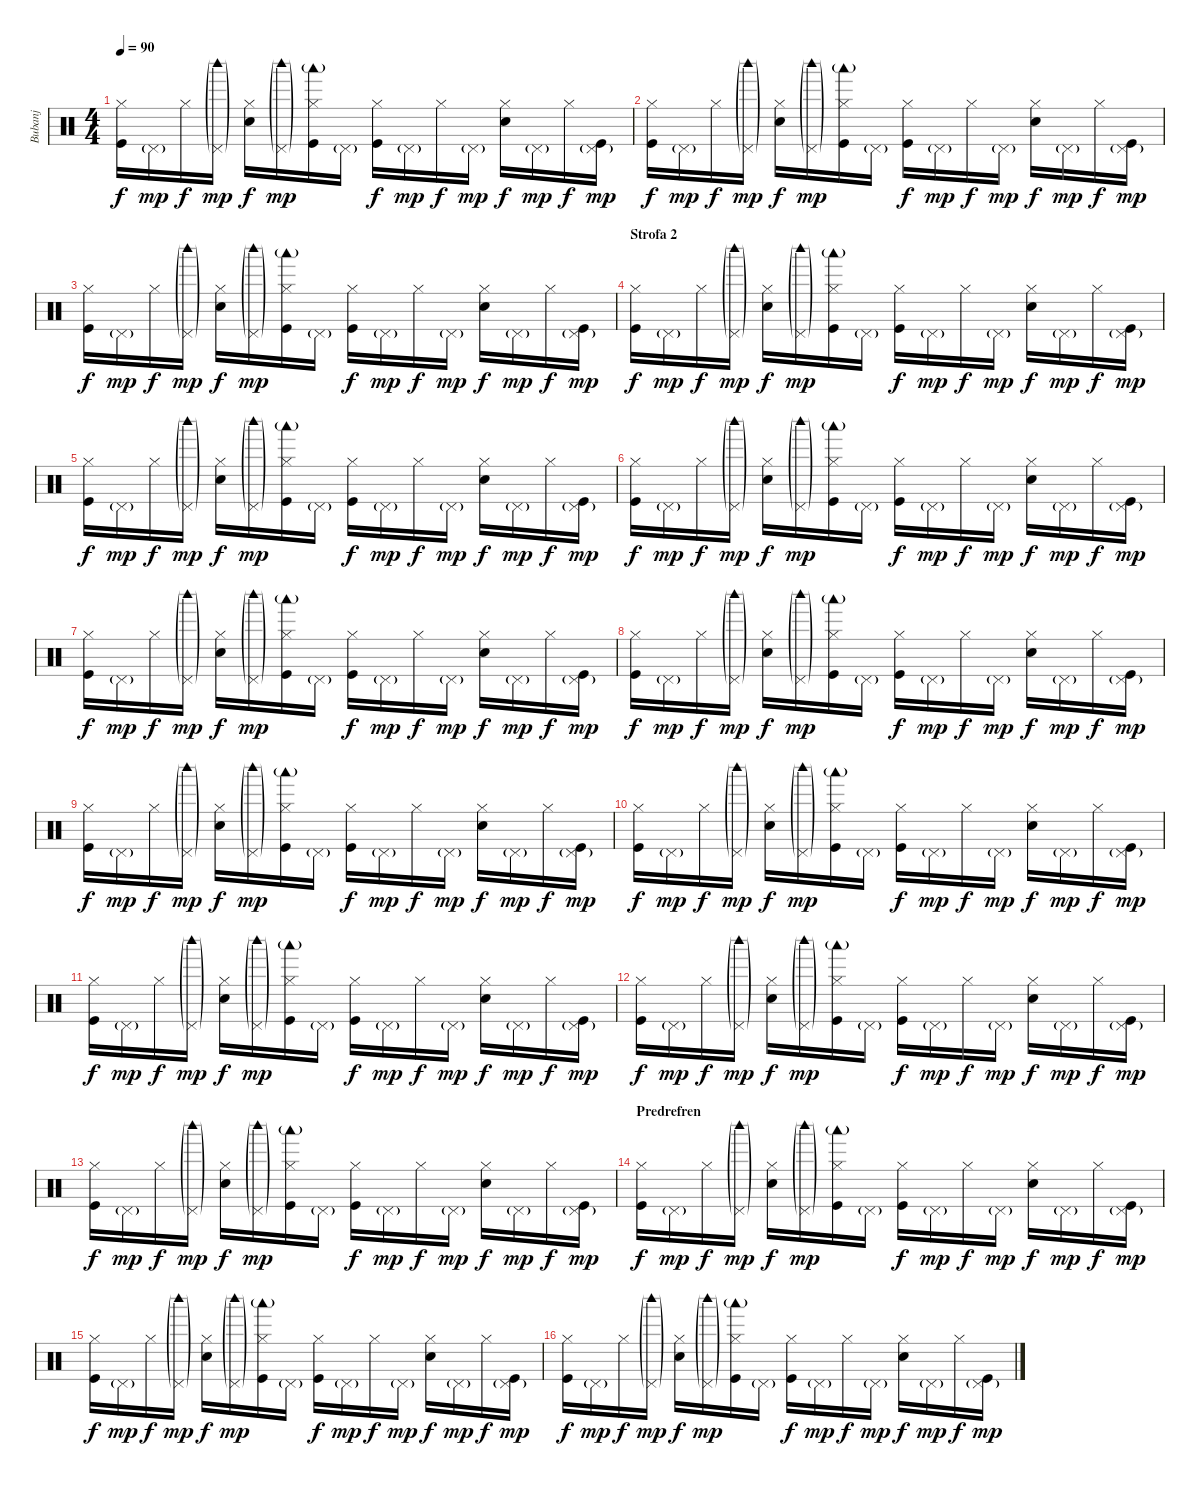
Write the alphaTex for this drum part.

\track ("Bubanj" "Bubanj") {instrument percussion}
\staff {score}
\articulation defaults
\ts (4 4)
\tempo 90
\clef neutral
\ks c
("Hi-Hat (closed)" "Kick (hit)").16{dy f} "Pedal Hi-Hat (hit)"{g}.16{dy mp} "Hi-Hat (closed)".16{dy f} ("Pedal Hi-Hat (hit)"{g} "Woodblock high (hit)"{g}).16{dy mp} ("Hi-Hat (closed)" "Snare (hit) 2").16{dy f} ("Pedal Hi-Hat (hit)"{g} "Woodblock high (hit)"{g}).16{dy mp} ("Hi-Hat (closed)" "Woodblock low (hit)"{g} "Kick (hit)").16 "Pedal Hi-Hat (hit)"{g}.16 ("Hi-Hat (closed)" "Kick (hit)").16{dy f} "Pedal Hi-Hat (hit)"{g}.16{dy mp} "Hi-Hat (closed)".16{dy f} "Pedal Hi-Hat (hit)"{g}.16{dy mp} ("Hi-Hat (closed)" "Snare (hit) 2").16{dy f} "Pedal Hi-Hat (hit)"{g}.16{dy mp} "Hi-Hat (closed)".16{dy f} ("Pedal Hi-Hat (hit)"{g} "Kick (hit)").16{dy mp} |
("Hi-Hat (closed)" "Kick (hit)").16{dy f} "Pedal Hi-Hat (hit)"{g}.16{dy mp} "Hi-Hat (closed)".16{dy f} ("Pedal Hi-Hat (hit)"{g} "Woodblock high (hit)"{g}).16{dy mp} ("Hi-Hat (closed)" "Snare (hit) 2").16{dy f} ("Pedal Hi-Hat (hit)"{g} "Woodblock high (hit)"{g}).16{dy mp} ("Hi-Hat (closed)" "Woodblock low (hit)"{g} "Kick (hit)").16 "Pedal Hi-Hat (hit)"{g}.16 ("Hi-Hat (closed)" "Kick (hit)").16{dy f} "Pedal Hi-Hat (hit)"{g}.16{dy mp} "Hi-Hat (closed)".16{dy f} "Pedal Hi-Hat (hit)"{g}.16{dy mp} ("Hi-Hat (closed)" "Snare (hit) 2").16{dy f} "Pedal Hi-Hat (hit)"{g}.16{dy mp} "Hi-Hat (closed)".16{dy f} ("Pedal Hi-Hat (hit)"{g} "Kick (hit)").16{dy mp} |
("Hi-Hat (closed)" "Kick (hit)").16{dy f} "Pedal Hi-Hat (hit)"{g}.16{dy mp} "Hi-Hat (closed)".16{dy f} ("Pedal Hi-Hat (hit)"{g} "Woodblock high (hit)"{g}).16{dy mp} ("Hi-Hat (closed)" "Snare (hit) 2").16{dy f} ("Pedal Hi-Hat (hit)"{g} "Woodblock high (hit)"{g}).16{dy mp} ("Hi-Hat (closed)" "Woodblock low (hit)"{g} "Kick (hit)").16 "Pedal Hi-Hat (hit)"{g}.16 ("Hi-Hat (closed)" "Kick (hit)").16{dy f} "Pedal Hi-Hat (hit)"{g}.16{dy mp} "Hi-Hat (closed)".16{dy f} "Pedal Hi-Hat (hit)"{g}.16{dy mp} ("Hi-Hat (closed)" "Snare (hit) 2").16{dy f} "Pedal Hi-Hat (hit)"{g}.16{dy mp} "Hi-Hat (closed)".16{dy f} ("Pedal Hi-Hat (hit)"{g} "Kick (hit)").16{dy mp} |
\section ("" "Strofa 2")
("Hi-Hat (closed)" "Kick (hit)").16{dy f} "Pedal Hi-Hat (hit)"{g}.16{dy mp} "Hi-Hat (closed)".16{dy f} ("Pedal Hi-Hat (hit)"{g} "Woodblock high (hit)"{g}).16{dy mp} ("Hi-Hat (closed)" "Snare (hit) 2").16{dy f} ("Pedal Hi-Hat (hit)"{g} "Woodblock high (hit)"{g}).16{dy mp} ("Hi-Hat (closed)" "Woodblock low (hit)"{g} "Kick (hit)").16 "Pedal Hi-Hat (hit)"{g}.16 ("Hi-Hat (closed)" "Kick (hit)").16{dy f} "Pedal Hi-Hat (hit)"{g}.16{dy mp} "Hi-Hat (closed)".16{dy f} "Pedal Hi-Hat (hit)"{g}.16{dy mp} ("Hi-Hat (closed)" "Snare (hit) 2").16{dy f} "Pedal Hi-Hat (hit)"{g}.16{dy mp} "Hi-Hat (closed)".16{dy f} ("Pedal Hi-Hat (hit)"{g} "Kick (hit)").16{dy mp} |
("Hi-Hat (closed)" "Kick (hit)").16{dy f} "Pedal Hi-Hat (hit)"{g}.16{dy mp} "Hi-Hat (closed)".16{dy f} ("Pedal Hi-Hat (hit)"{g} "Woodblock high (hit)"{g}).16{dy mp} ("Hi-Hat (closed)" "Snare (hit) 2").16{dy f} ("Pedal Hi-Hat (hit)"{g} "Woodblock high (hit)"{g}).16{dy mp} ("Hi-Hat (closed)" "Woodblock low (hit)"{g} "Kick (hit)").16 "Pedal Hi-Hat (hit)"{g}.16 ("Hi-Hat (closed)" "Kick (hit)").16{dy f} "Pedal Hi-Hat (hit)"{g}.16{dy mp} "Hi-Hat (closed)".16{dy f} "Pedal Hi-Hat (hit)"{g}.16{dy mp} ("Hi-Hat (closed)" "Snare (hit) 2").16{dy f} "Pedal Hi-Hat (hit)"{g}.16{dy mp} "Hi-Hat (closed)".16{dy f} ("Pedal Hi-Hat (hit)"{g} "Kick (hit)").16{dy mp} |
("Hi-Hat (closed)" "Kick (hit)").16{dy f} "Pedal Hi-Hat (hit)"{g}.16{dy mp} "Hi-Hat (closed)".16{dy f} ("Pedal Hi-Hat (hit)"{g} "Woodblock high (hit)"{g}).16{dy mp} ("Hi-Hat (closed)" "Snare (hit) 2").16{dy f} ("Pedal Hi-Hat (hit)"{g} "Woodblock high (hit)"{g}).16{dy mp} ("Hi-Hat (closed)" "Woodblock low (hit)"{g} "Kick (hit)").16 "Pedal Hi-Hat (hit)"{g}.16 ("Hi-Hat (closed)" "Kick (hit)").16{dy f} "Pedal Hi-Hat (hit)"{g}.16{dy mp} "Hi-Hat (closed)".16{dy f} "Pedal Hi-Hat (hit)"{g}.16{dy mp} ("Hi-Hat (closed)" "Snare (hit) 2").16{dy f} "Pedal Hi-Hat (hit)"{g}.16{dy mp} "Hi-Hat (closed)".16{dy f} ("Pedal Hi-Hat (hit)"{g} "Kick (hit)").16{dy mp} |
("Hi-Hat (closed)" "Kick (hit)").16{dy f} "Pedal Hi-Hat (hit)"{g}.16{dy mp} "Hi-Hat (closed)".16{dy f} ("Pedal Hi-Hat (hit)"{g} "Woodblock high (hit)"{g}).16{dy mp} ("Hi-Hat (closed)" "Snare (hit) 2").16{dy f} ("Pedal Hi-Hat (hit)"{g} "Woodblock high (hit)"{g}).16{dy mp} ("Hi-Hat (closed)" "Woodblock low (hit)"{g} "Kick (hit)").16 "Pedal Hi-Hat (hit)"{g}.16 ("Hi-Hat (closed)" "Kick (hit)").16{dy f} "Pedal Hi-Hat (hit)"{g}.16{dy mp} "Hi-Hat (closed)".16{dy f} "Pedal Hi-Hat (hit)"{g}.16{dy mp} ("Hi-Hat (closed)" "Snare (hit) 2").16{dy f} "Pedal Hi-Hat (hit)"{g}.16{dy mp} "Hi-Hat (closed)".16{dy f} ("Pedal Hi-Hat (hit)"{g} "Kick (hit)").16{dy mp} |
("Hi-Hat (closed)" "Kick (hit)").16{dy f} "Pedal Hi-Hat (hit)"{g}.16{dy mp} "Hi-Hat (closed)".16{dy f} ("Pedal Hi-Hat (hit)"{g} "Woodblock high (hit)"{g}).16{dy mp} ("Hi-Hat (closed)" "Snare (hit) 2").16{dy f} ("Pedal Hi-Hat (hit)"{g} "Woodblock high (hit)"{g}).16{dy mp} ("Hi-Hat (closed)" "Woodblock low (hit)"{g} "Kick (hit)").16 "Pedal Hi-Hat (hit)"{g}.16 ("Hi-Hat (closed)" "Kick (hit)").16{dy f} "Pedal Hi-Hat (hit)"{g}.16{dy mp} "Hi-Hat (closed)".16{dy f} "Pedal Hi-Hat (hit)"{g}.16{dy mp} ("Hi-Hat (closed)" "Snare (hit) 2").16{dy f} "Pedal Hi-Hat (hit)"{g}.16{dy mp} "Hi-Hat (closed)".16{dy f} ("Pedal Hi-Hat (hit)"{g} "Kick (hit)").16{dy mp} |
("Hi-Hat (closed)" "Kick (hit)").16{dy f} "Pedal Hi-Hat (hit)"{g}.16{dy mp} "Hi-Hat (closed)".16{dy f} ("Pedal Hi-Hat (hit)"{g} "Woodblock high (hit)"{g}).16{dy mp} ("Hi-Hat (closed)" "Snare (hit) 2").16{dy f} ("Pedal Hi-Hat (hit)"{g} "Woodblock high (hit)"{g}).16{dy mp} ("Hi-Hat (closed)" "Woodblock low (hit)"{g} "Kick (hit)").16 "Pedal Hi-Hat (hit)"{g}.16 ("Hi-Hat (closed)" "Kick (hit)").16{dy f} "Pedal Hi-Hat (hit)"{g}.16{dy mp} "Hi-Hat (closed)".16{dy f} "Pedal Hi-Hat (hit)"{g}.16{dy mp} ("Hi-Hat (closed)" "Snare (hit) 2").16{dy f} "Pedal Hi-Hat (hit)"{g}.16{dy mp} "Hi-Hat (closed)".16{dy f} ("Pedal Hi-Hat (hit)"{g} "Kick (hit)").16{dy mp} |
("Hi-Hat (closed)" "Kick (hit)").16{dy f} "Pedal Hi-Hat (hit)"{g}.16{dy mp} "Hi-Hat (closed)".16{dy f} ("Pedal Hi-Hat (hit)"{g} "Woodblock high (hit)"{g}).16{dy mp} ("Hi-Hat (closed)" "Snare (hit) 2").16{dy f} ("Pedal Hi-Hat (hit)"{g} "Woodblock high (hit)"{g}).16{dy mp} ("Hi-Hat (closed)" "Woodblock low (hit)"{g} "Kick (hit)").16 "Pedal Hi-Hat (hit)"{g}.16 ("Hi-Hat (closed)" "Kick (hit)").16{dy f} "Pedal Hi-Hat (hit)"{g}.16{dy mp} "Hi-Hat (closed)".16{dy f} "Pedal Hi-Hat (hit)"{g}.16{dy mp} ("Hi-Hat (closed)" "Snare (hit) 2").16{dy f} "Pedal Hi-Hat (hit)"{g}.16{dy mp} "Hi-Hat (closed)".16{dy f} ("Pedal Hi-Hat (hit)"{g} "Kick (hit)").16{dy mp} |
("Hi-Hat (closed)" "Kick (hit)").16{dy f} "Pedal Hi-Hat (hit)"{g}.16{dy mp} "Hi-Hat (closed)".16{dy f} ("Pedal Hi-Hat (hit)"{g} "Woodblock high (hit)"{g}).16{dy mp} ("Hi-Hat (closed)" "Snare (hit) 2").16{dy f} ("Pedal Hi-Hat (hit)"{g} "Woodblock high (hit)"{g}).16{dy mp} ("Hi-Hat (closed)" "Woodblock low (hit)"{g} "Kick (hit)").16 "Pedal Hi-Hat (hit)"{g}.16 ("Hi-Hat (closed)" "Kick (hit)").16{dy f} "Pedal Hi-Hat (hit)"{g}.16{dy mp} "Hi-Hat (closed)".16{dy f} "Pedal Hi-Hat (hit)"{g}.16{dy mp} ("Hi-Hat (closed)" "Snare (hit) 2").16{dy f} "Pedal Hi-Hat (hit)"{g}.16{dy mp} "Hi-Hat (closed)".16{dy f} ("Pedal Hi-Hat (hit)"{g} "Kick (hit)").16{dy mp} |
("Hi-Hat (closed)" "Kick (hit)").16{dy f} "Pedal Hi-Hat (hit)"{g}.16{dy mp} "Hi-Hat (closed)".16{dy f} ("Pedal Hi-Hat (hit)"{g} "Woodblock high (hit)"{g}).16{dy mp} ("Hi-Hat (closed)" "Snare (hit) 2").16{dy f} ("Pedal Hi-Hat (hit)"{g} "Woodblock high (hit)"{g}).16{dy mp} ("Hi-Hat (closed)" "Woodblock low (hit)"{g} "Kick (hit)").16 "Pedal Hi-Hat (hit)"{g}.16 ("Hi-Hat (closed)" "Kick (hit)").16{dy f} "Pedal Hi-Hat (hit)"{g}.16{dy mp} "Hi-Hat (closed)".16{dy f} "Pedal Hi-Hat (hit)"{g}.16{dy mp} ("Hi-Hat (closed)" "Snare (hit) 2").16{dy f} "Pedal Hi-Hat (hit)"{g}.16{dy mp} "Hi-Hat (closed)".16{dy f} ("Pedal Hi-Hat (hit)"{g} "Kick (hit)").16{dy mp} |
("Hi-Hat (closed)" "Kick (hit)").16{dy f} "Pedal Hi-Hat (hit)"{g}.16{dy mp} "Hi-Hat (closed)".16{dy f} ("Pedal Hi-Hat (hit)"{g} "Woodblock high (hit)"{g}).16{dy mp} ("Hi-Hat (closed)" "Snare (hit) 2").16{dy f} ("Pedal Hi-Hat (hit)"{g} "Woodblock high (hit)"{g}).16{dy mp} ("Hi-Hat (closed)" "Woodblock low (hit)"{g} "Kick (hit)").16 "Pedal Hi-Hat (hit)"{g}.16 ("Hi-Hat (closed)" "Kick (hit)").16{dy f} "Pedal Hi-Hat (hit)"{g}.16{dy mp} "Hi-Hat (closed)".16{dy f} "Pedal Hi-Hat (hit)"{g}.16{dy mp} ("Hi-Hat (closed)" "Snare (hit) 2").16{dy f} "Pedal Hi-Hat (hit)"{g}.16{dy mp} "Hi-Hat (closed)".16{dy f} ("Pedal Hi-Hat (hit)"{g} "Kick (hit)").16{dy mp} |
\section ("" "Predrefren")
("Hi-Hat (closed)" "Kick (hit)").16{dy f} "Pedal Hi-Hat (hit)"{g}.16{dy mp} "Hi-Hat (closed)".16{dy f} ("Pedal Hi-Hat (hit)"{g} "Woodblock high (hit)"{g}).16{dy mp} ("Hi-Hat (closed)" "Snare (hit) 2").16{dy f} ("Pedal Hi-Hat (hit)"{g} "Woodblock high (hit)"{g}).16{dy mp} ("Hi-Hat (closed)" "Woodblock low (hit)"{g} "Kick (hit)").16 "Pedal Hi-Hat (hit)"{g}.16 ("Hi-Hat (closed)" "Kick (hit)").16{dy f} "Pedal Hi-Hat (hit)"{g}.16{dy mp} "Hi-Hat (closed)".16{dy f} "Pedal Hi-Hat (hit)"{g}.16{dy mp} ("Hi-Hat (closed)" "Snare (hit) 2").16{dy f} "Pedal Hi-Hat (hit)"{g}.16{dy mp} "Hi-Hat (closed)".16{dy f} ("Pedal Hi-Hat (hit)"{g} "Kick (hit)").16{dy mp} |
("Hi-Hat (closed)" "Kick (hit)").16{dy f} "Pedal Hi-Hat (hit)"{g}.16{dy mp} "Hi-Hat (closed)".16{dy f} ("Pedal Hi-Hat (hit)"{g} "Woodblock high (hit)"{g}).16{dy mp} ("Hi-Hat (closed)" "Snare (hit) 2").16{dy f} ("Pedal Hi-Hat (hit)"{g} "Woodblock high (hit)"{g}).16{dy mp} ("Hi-Hat (closed)" "Woodblock low (hit)"{g} "Kick (hit)").16 "Pedal Hi-Hat (hit)"{g}.16 ("Hi-Hat (closed)" "Kick (hit)").16{dy f} "Pedal Hi-Hat (hit)"{g}.16{dy mp} "Hi-Hat (closed)".16{dy f} "Pedal Hi-Hat (hit)"{g}.16{dy mp} ("Hi-Hat (closed)" "Snare (hit) 2").16{dy f} "Pedal Hi-Hat (hit)"{g}.16{dy mp} "Hi-Hat (closed)".16{dy f} ("Pedal Hi-Hat (hit)"{g} "Kick (hit)").16{dy mp} |
("Hi-Hat (closed)" "Kick (hit)").16{dy f} "Pedal Hi-Hat (hit)"{g}.16{dy mp} "Hi-Hat (closed)".16{dy f} ("Pedal Hi-Hat (hit)"{g} "Woodblock high (hit)"{g}).16{dy mp} ("Hi-Hat (closed)" "Snare (hit) 2").16{dy f} ("Pedal Hi-Hat (hit)"{g} "Woodblock high (hit)"{g}).16{dy mp} ("Hi-Hat (closed)" "Woodblock low (hit)"{g} "Kick (hit)").16 "Pedal Hi-Hat (hit)"{g}.16 ("Hi-Hat (closed)" "Kick (hit)").16{dy f} "Pedal Hi-Hat (hit)"{g}.16{dy mp} "Hi-Hat (closed)".16{dy f} "Pedal Hi-Hat (hit)"{g}.16{dy mp} ("Hi-Hat (closed)" "Snare (hit) 2").16{dy f} "Pedal Hi-Hat (hit)"{g}.16{dy mp} "Hi-Hat (closed)".16{dy f} ("Pedal Hi-Hat (hit)"{g} "Kick (hit)").16{dy mp}
